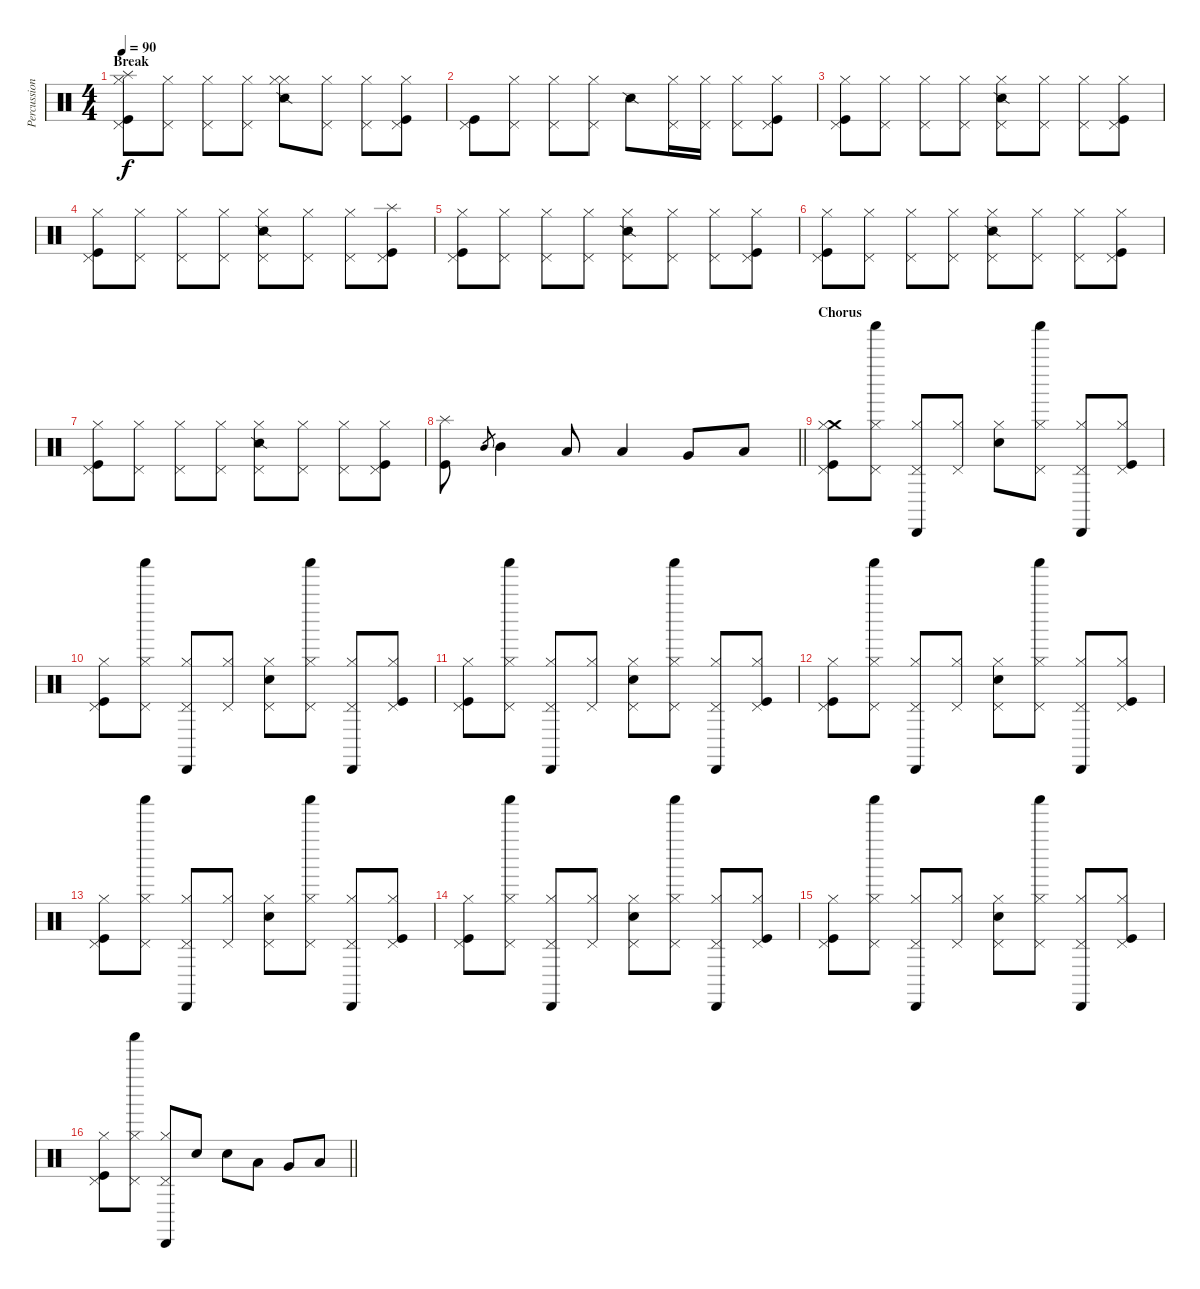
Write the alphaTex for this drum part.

\track ("Percussion" "Percussion") {instrument percussion}
\staff {score}
\articulation defaults
\ts (4 4)
\section ("" "Break")
\tempo 90
\clef neutral
\ks c
("Splash (hit)" "Hi-Hat (closed)" "Pedal Hi-Hat (hit)" "Kick (hit)").8{dy f} ("Hi-Hat (closed)" "Pedal Hi-Hat (hit)").8 ("Hi-Hat (closed)" "Pedal Hi-Hat (hit)").8 ("Hi-Hat (closed)" "Pedal Hi-Hat (hit)").8 ("Snare (side stick) 2" "Hi-Hat (closed)" "Hi-Hat (closed)").8 ("Hi-Hat (closed)" "Pedal Hi-Hat (hit)").8 ("Hi-Hat (closed)" "Pedal Hi-Hat (hit)").8 ("Hi-Hat (closed)" "Pedal Hi-Hat (hit)" "Kick (hit)").8 |
("Pedal Hi-Hat (hit)" "Kick (hit)").8 ("Hi-Hat (closed)" "Pedal Hi-Hat (hit)").8 ("Hi-Hat (closed)" "Pedal Hi-Hat (hit)").8 ("Hi-Hat (closed)" "Pedal Hi-Hat (hit)").8 "Snare (side stick) 2".8 ("Hi-Hat (closed)" "Pedal Hi-Hat (hit)").16 ("Hi-Hat (closed)" "Pedal Hi-Hat (hit)").16 ("Hi-Hat (closed)" "Pedal Hi-Hat (hit)").8 ("Hi-Hat (closed)" "Pedal Hi-Hat (hit)" "Kick (hit)").8 |
("Hi-Hat (closed)" "Pedal Hi-Hat (hit)" "Kick (hit)").8 ("Hi-Hat (closed)" "Pedal Hi-Hat (hit)").8 ("Hi-Hat (closed)" "Pedal Hi-Hat (hit)").8 ("Hi-Hat (closed)" "Pedal Hi-Hat (hit)").8 ("Snare (side stick) 2" "Hi-Hat (closed)" "Pedal Hi-Hat (hit)").8 ("Hi-Hat (closed)" "Pedal Hi-Hat (hit)").8 ("Hi-Hat (closed)" "Pedal Hi-Hat (hit)").8 ("Hi-Hat (closed)" "Pedal Hi-Hat (hit)" "Kick (hit)").8 |
("Hi-Hat (closed)" "Pedal Hi-Hat (hit)" "Kick (hit)").8 ("Hi-Hat (closed)" "Pedal Hi-Hat (hit)").8 ("Hi-Hat (closed)" "Pedal Hi-Hat (hit)").8 ("Hi-Hat (closed)" "Pedal Hi-Hat (hit)").8 ("Snare (side stick) 2" "Hi-Hat (closed)" "Pedal Hi-Hat (hit)").8 ("Hi-Hat (closed)" "Pedal Hi-Hat (hit)").8 ("Hi-Hat (closed)" "Pedal Hi-Hat (hit)").8 ("Splash (hit)" "Pedal Hi-Hat (hit)" "Kick (hit)").8 |
("Hi-Hat (closed)" "Pedal Hi-Hat (hit)" "Kick (hit)").8 ("Hi-Hat (closed)" "Pedal Hi-Hat (hit)").8 ("Hi-Hat (closed)" "Pedal Hi-Hat (hit)").8 ("Hi-Hat (closed)" "Pedal Hi-Hat (hit)").8 ("Snare (side stick) 2" "Hi-Hat (closed)" "Pedal Hi-Hat (hit)").8 ("Hi-Hat (closed)" "Pedal Hi-Hat (hit)").8 ("Hi-Hat (closed)" "Pedal Hi-Hat (hit)").8 ("Hi-Hat (closed)" "Pedal Hi-Hat (hit)" "Kick (hit)").8 |
("Hi-Hat (closed)" "Pedal Hi-Hat (hit)" "Kick (hit)").8 ("Hi-Hat (closed)" "Pedal Hi-Hat (hit)").8 ("Hi-Hat (closed)" "Pedal Hi-Hat (hit)").8 ("Hi-Hat (closed)" "Pedal Hi-Hat (hit)").8 ("Snare (side stick) 2" "Hi-Hat (closed)" "Pedal Hi-Hat (hit)").8 ("Hi-Hat (closed)" "Pedal Hi-Hat (hit)").8 ("Hi-Hat (closed)" "Pedal Hi-Hat (hit)").8 ("Hi-Hat (closed)" "Pedal Hi-Hat (hit)" "Kick (hit)").8 |
("Hi-Hat (closed)" "Pedal Hi-Hat (hit)" "Kick (hit)").8 ("Hi-Hat (closed)" "Pedal Hi-Hat (hit)").8 ("Hi-Hat (closed)" "Pedal Hi-Hat (hit)").8 ("Hi-Hat (closed)" "Pedal Hi-Hat (hit)").8 ("Snare (side stick) 2" "Hi-Hat (closed)" "Pedal Hi-Hat (hit)").8 ("Hi-Hat (closed)" "Pedal Hi-Hat (hit)").8 ("Hi-Hat (closed)" "Pedal Hi-Hat (hit)").8 ("Hi-Hat (closed)" "Pedal Hi-Hat (hit)" "Kick (hit)").8 |
\barLineRight lightlight
("Splash (hit)" "Kick (hit)").8 "Mid Tom (hit)".8{gr} "Mid Tom (hit)".4 "Low Tom (hit)".8 "Low Tom (hit)".4 "Very Low Tom (hit)".8 "Low Floor Tom (hit)".8 |
\section ("" "Chorus")
("Crash medium (hit)" "Hi-Hat (closed)" "Pedal Hi-Hat (hit)" "Kick (hit)").8 ("Hi-Hat (closed)" "Pedal Hi-Hat (hit)" "Shaker (hit)").8 ("Hi-Hat (closed)" "Pedal Hi-Hat (hit)" "Cabasa (hit)").8 ("Hi-Hat (closed)" "Pedal Hi-Hat (hit)").8 ("Electric Snare (hit)" "Hi-Hat (closed)").8 ("Hi-Hat (closed)" "Pedal Hi-Hat (hit)" "Shaker (hit)").8 ("Hi-Hat (closed)" "Pedal Hi-Hat (hit)" "Cabasa (hit)").8 ("Hi-Hat (closed)" "Pedal Hi-Hat (hit)" "Kick (hit)").8 |
("Hi-Hat (closed)" "Pedal Hi-Hat (hit)" "Kick (hit)").8 ("Hi-Hat (closed)" "Pedal Hi-Hat (hit)" "Shaker (hit)").8 ("Hi-Hat (closed)" "Pedal Hi-Hat (hit)" "Cabasa (hit)").8 ("Hi-Hat (closed)" "Pedal Hi-Hat (hit)").8 ("Hi-Hat (closed)" "Pedal Hi-Hat (hit)" "Electric Snare (hit)").8 ("Hi-Hat (closed)" "Pedal Hi-Hat (hit)" "Shaker (hit)").8 ("Hi-Hat (closed)" "Pedal Hi-Hat (hit)" "Cabasa (hit)").8 ("Hi-Hat (closed)" "Pedal Hi-Hat (hit)" "Kick (hit)").8 |
("Hi-Hat (closed)" "Pedal Hi-Hat (hit)" "Kick (hit)").8 ("Hi-Hat (closed)" "Pedal Hi-Hat (hit)" "Shaker (hit)").8 ("Hi-Hat (closed)" "Pedal Hi-Hat (hit)" "Cabasa (hit)").8 ("Hi-Hat (closed)" "Pedal Hi-Hat (hit)").8 ("Hi-Hat (closed)" "Pedal Hi-Hat (hit)" "Electric Snare (hit)").8 ("Hi-Hat (closed)" "Pedal Hi-Hat (hit)" "Shaker (hit)").8 ("Hi-Hat (closed)" "Pedal Hi-Hat (hit)" "Cabasa (hit)").8 ("Hi-Hat (closed)" "Pedal Hi-Hat (hit)" "Kick (hit)").8 |
("Hi-Hat (closed)" "Pedal Hi-Hat (hit)" "Kick (hit)").8 ("Hi-Hat (closed)" "Pedal Hi-Hat (hit)" "Shaker (hit)").8 ("Hi-Hat (closed)" "Pedal Hi-Hat (hit)" "Cabasa (hit)").8 ("Hi-Hat (closed)" "Pedal Hi-Hat (hit)").8 ("Hi-Hat (closed)" "Pedal Hi-Hat (hit)" "Electric Snare (hit)").8 ("Hi-Hat (closed)" "Pedal Hi-Hat (hit)" "Shaker (hit)").8 ("Hi-Hat (closed)" "Pedal Hi-Hat (hit)" "Cabasa (hit)").8 ("Hi-Hat (closed)" "Pedal Hi-Hat (hit)" "Kick (hit)").8 |
("Hi-Hat (closed)" "Pedal Hi-Hat (hit)" "Kick (hit)").8 ("Hi-Hat (closed)" "Pedal Hi-Hat (hit)" "Shaker (hit)").8 ("Hi-Hat (closed)" "Pedal Hi-Hat (hit)" "Cabasa (hit)").8 ("Hi-Hat (closed)" "Pedal Hi-Hat (hit)").8 ("Hi-Hat (closed)" "Pedal Hi-Hat (hit)" "Electric Snare (hit)").8 ("Hi-Hat (closed)" "Pedal Hi-Hat (hit)" "Shaker (hit)").8 ("Hi-Hat (closed)" "Pedal Hi-Hat (hit)" "Cabasa (hit)").8 ("Hi-Hat (closed)" "Pedal Hi-Hat (hit)" "Kick (hit)").8 |
("Hi-Hat (closed)" "Pedal Hi-Hat (hit)" "Kick (hit)").8 ("Hi-Hat (closed)" "Pedal Hi-Hat (hit)" "Shaker (hit)").8 ("Hi-Hat (closed)" "Pedal Hi-Hat (hit)" "Cabasa (hit)").8 ("Hi-Hat (closed)" "Pedal Hi-Hat (hit)").8 ("Hi-Hat (closed)" "Pedal Hi-Hat (hit)" "Electric Snare (hit)").8 ("Hi-Hat (closed)" "Pedal Hi-Hat (hit)" "Shaker (hit)").8 ("Hi-Hat (closed)" "Pedal Hi-Hat (hit)" "Cabasa (hit)").8 ("Hi-Hat (closed)" "Pedal Hi-Hat (hit)" "Kick (hit)").8 |
("Hi-Hat (closed)" "Pedal Hi-Hat (hit)" "Kick (hit)").8 ("Hi-Hat (closed)" "Pedal Hi-Hat (hit)" "Shaker (hit)").8 ("Hi-Hat (closed)" "Pedal Hi-Hat (hit)" "Cabasa (hit)").8 ("Hi-Hat (closed)" "Pedal Hi-Hat (hit)").8 ("Hi-Hat (closed)" "Pedal Hi-Hat (hit)" "Electric Snare (hit)").8 ("Hi-Hat (closed)" "Pedal Hi-Hat (hit)" "Shaker (hit)").8 ("Hi-Hat (closed)" "Pedal Hi-Hat (hit)" "Cabasa (hit)").8 ("Hi-Hat (closed)" "Pedal Hi-Hat (hit)" "Kick (hit)").8 |
\barLineRight lightlight
("Hi-Hat (closed)" "Pedal Hi-Hat (hit)" "Kick (hit)").8 ("Hi-Hat (closed)" "Pedal Hi-Hat (hit)" "Shaker (hit)").8 ("Hi-Hat (closed)" "Pedal Hi-Hat (hit)" "Cabasa (hit)").8 "Electric Snare (hit)".8 "Electric Snare (hit)".8 "Low Tom (hit)".8 "Very Low Tom (hit)".8 "Low Floor Tom (hit)".8
